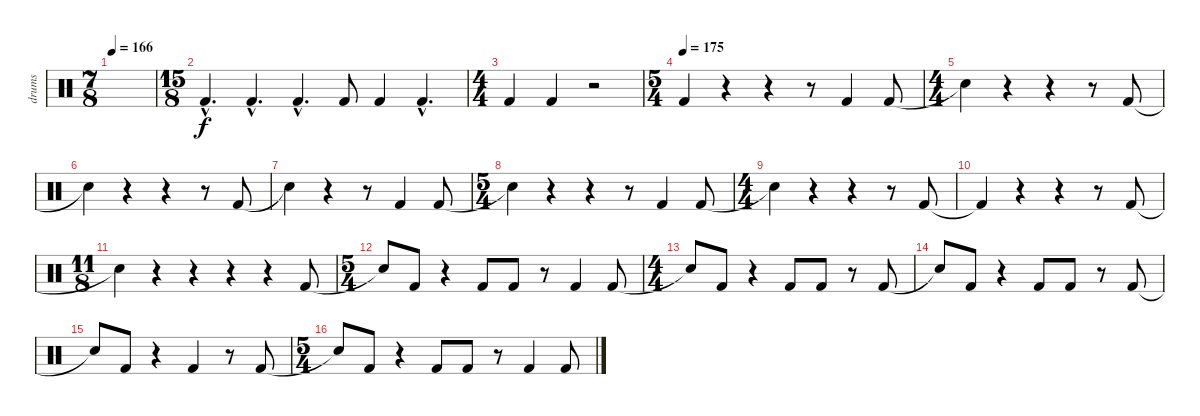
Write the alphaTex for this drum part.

\track ("drums" "drums") {instrument percussion}
\staff {score}
\articulation defaults
\ts (7 8)
\tempo 166
\clef neutral
\ks c
|
\ts (15 8)
"Kick (hit) 2"{hac}.4{d} "Kick (hit) 2"{hac}.4{d} "Kick (hit) 2"{hac}.4{d} "Kick (hit) 2".8 "Kick (hit) 2".4 "Kick (hit) 2"{hac}.4{d} |
\ts (4 4)
"Kick (hit) 2".4 "Kick (hit) 2".4 r.2 |
\ts (5 4)
\tempo 172
\tempo (175)
"Kick (hit) 2".4 r.4 r.4 r.8 "Kick (hit) 2".4 "Kick (hit) 2".8 |
\ts (4 4)
"Snare (hit)"{t}.4 r.4 r.4 r.8 "Kick (hit) 2".8 |
"Snare (hit)"{t}.4 r.4 r.4 r.8 "Kick (hit) 2".8 |
"Snare (hit)"{t}.4 r.4 r.8 "Kick (hit) 2".4 "Kick (hit) 2".8 |
\ts (5 4)
"Snare (hit)"{t}.4 r.4 r.4 r.8 "Kick (hit) 2".4 "Kick (hit) 2".8 |
\ts (4 4)
"Snare (hit)"{t}.4 r.4 r.4 r.8 "Kick (hit) 2".8 |
"Kick (hit) 2"{t}.4 r.4 r.4 r.8 "Kick (hit) 2".8 |
\ts (11 8)
"Snare (hit)"{t}.4 r.4 r.4 r.4 r.4 "Kick (hit) 2".8 |
\ts (5 4)
"Snare (hit)"{t}.8 "Kick (hit) 2".8 r.4 "Kick (hit) 2".8 "Kick (hit) 2".8 r.8 "Kick (hit) 2".4 "Kick (hit) 2".8 |
\ts (4 4)
"Snare (hit)"{t}.8 "Kick (hit) 2".8 r.4 "Kick (hit) 2".8 "Kick (hit) 2".8 r.8 "Kick (hit) 2".8 |
"Snare (hit)"{t}.8 "Kick (hit) 2".8 r.4 "Kick (hit) 2".8 "Kick (hit) 2".8 r.8 "Kick (hit) 2".8 |
"Snare (hit)"{t}.8 "Kick (hit) 2".8 r.4 "Kick (hit) 2".4 r.8 "Kick (hit) 2".8 |
\ts (5 4)
"Snare (hit)"{t}.8 "Kick (hit) 2".8 r.4 "Kick (hit) 2".8 "Kick (hit) 2".8 r.8 "Kick (hit) 2".4 "Kick (hit) 2".8
